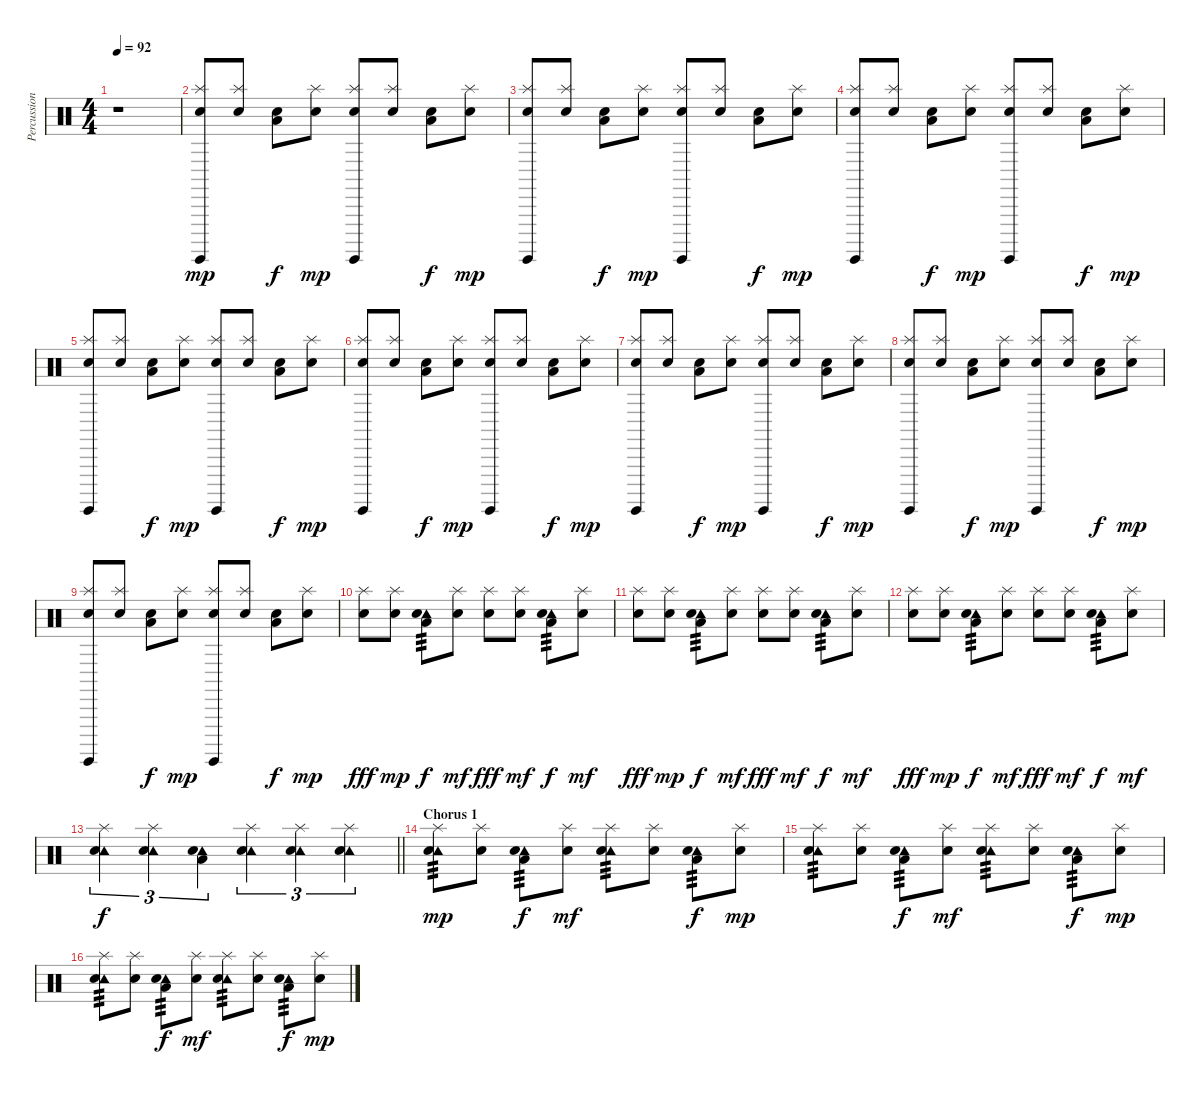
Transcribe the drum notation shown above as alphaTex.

\track ("Percussion" "Percussion") {instrument percussion}
\staff {score}
\articulation defaults
\ts (4 4)
\tempo 92
\clef neutral
\ks c
r.1{dy mp} |
("Surdo (hit)" "Splash (hit)" "Snare (hit) 2").8 ("Splash (hit)" "Snare (hit) 2").8 ("Low Floor Tom (hit)" "Snare (hit) 2").8{dy f} ("Splash (hit)" "Snare (hit) 2").8{dy mp} ("Surdo (hit)" "Splash (hit)" "Snare (hit) 2").8 ("Splash (hit)" "Snare (hit) 2").8 ("Low Floor Tom (hit)" "Snare (hit) 2").8{dy f} ("Splash (hit)" "Snare (hit) 2").8{dy mp} |
("Surdo (hit)" "Splash (hit)" "Snare (hit) 2").8 ("Splash (hit)" "Snare (hit) 2").8 ("Low Floor Tom (hit)" "Snare (hit) 2").8{dy f} ("Splash (hit)" "Snare (hit) 2").8{dy mp} ("Surdo (hit)" "Splash (hit)" "Snare (hit) 2").8 ("Splash (hit)" "Snare (hit) 2").8 ("Low Floor Tom (hit)" "Snare (hit) 2").8{dy f} ("Splash (hit)" "Snare (hit) 2").8{dy mp} |
("Surdo (hit)" "Splash (hit)" "Snare (hit) 2").8 ("Splash (hit)" "Snare (hit) 2").8 ("Low Floor Tom (hit)" "Snare (hit) 2").8{dy f} ("Splash (hit)" "Snare (hit) 2").8{dy mp} ("Surdo (hit)" "Splash (hit)" "Snare (hit) 2").8 ("Splash (hit)" "Snare (hit) 2").8 ("Low Floor Tom (hit)" "Snare (hit) 2").8{dy f} ("Splash (hit)" "Snare (hit) 2").8{dy mp} |
("Surdo (hit)" "Splash (hit)" "Snare (hit) 2").8 ("Splash (hit)" "Snare (hit) 2").8 ("Low Floor Tom (hit)" "Snare (hit) 2").8{dy f} ("Splash (hit)" "Snare (hit) 2").8{dy mp} ("Surdo (hit)" "Splash (hit)" "Snare (hit) 2").8 ("Splash (hit)" "Snare (hit) 2").8 ("Low Floor Tom (hit)" "Snare (hit) 2").8{dy f} ("Splash (hit)" "Snare (hit) 2").8{dy mp} |
("Surdo (hit)" "Splash (hit)" "Snare (hit) 2").8 ("Splash (hit)" "Snare (hit) 2").8 ("Low Floor Tom (hit)" "Snare (hit) 2").8{dy f} ("Splash (hit)" "Snare (hit) 2").8{dy mp} ("Surdo (hit)" "Splash (hit)" "Snare (hit) 2").8 ("Splash (hit)" "Snare (hit) 2").8 ("Low Floor Tom (hit)" "Snare (hit) 2").8{dy f} ("Splash (hit)" "Snare (hit) 2").8{dy mp} |
("Surdo (hit)" "Splash (hit)" "Snare (hit) 2").8 ("Splash (hit)" "Snare (hit) 2").8 ("Low Floor Tom (hit)" "Snare (hit) 2").8{dy f} ("Splash (hit)" "Snare (hit) 2").8{dy mp} ("Surdo (hit)" "Splash (hit)" "Snare (hit) 2").8 ("Splash (hit)" "Snare (hit) 2").8 ("Low Floor Tom (hit)" "Snare (hit) 2").8{dy f} ("Splash (hit)" "Snare (hit) 2").8{dy mp} |
("Surdo (hit)" "Splash (hit)" "Snare (hit) 2").8 ("Splash (hit)" "Snare (hit) 2").8 ("Low Floor Tom (hit)" "Snare (hit) 2").8{dy f} ("Splash (hit)" "Snare (hit) 2").8{dy mp} ("Surdo (hit)" "Splash (hit)" "Snare (hit) 2").8 ("Splash (hit)" "Snare (hit) 2").8 ("Low Floor Tom (hit)" "Snare (hit) 2").8{dy f} ("Splash (hit)" "Snare (hit) 2").8{dy mp} |
("Surdo (hit)" "Splash (hit)" "Snare (hit) 2").8 ("Splash (hit)" "Snare (hit) 2").8 ("Low Floor Tom (hit)" "Snare (hit) 2").8{dy f} ("Splash (hit)" "Snare (hit) 2").8{dy mp} ("Surdo (hit)" "Splash (hit)" "Snare (hit) 2").8 ("Splash (hit)" "Snare (hit) 2").8 ("Low Floor Tom (hit)" "Snare (hit) 2").8{dy f} ("Splash (hit)" "Snare (hit) 2").8{dy mp} |
("Splash (hit)" "Snare (hit) 2").8{dy fff} ("Splash (hit)" "Snare (hit) 2").8{dy mp} ("Tambourine (hit)" "Low Floor Tom (hit)" "Snare (hit) 2").8{tp 3 dy f} ("Splash (hit)" "Snare (hit) 2").8{dy mf} ("Splash (hit)" "Snare (hit) 2").8{dy fff} ("Splash (hit)" "Snare (hit) 2").8{dy mf} ("Tambourine (hit)" "Low Floor Tom (hit)" "Snare (hit) 2").8{tp 3 dy f} ("Splash (hit)" "Snare (hit) 2").8{dy mf} |
("Splash (hit)" "Snare (hit) 2").8{dy fff} ("Splash (hit)" "Snare (hit) 2").8{dy mp} ("Tambourine (hit)" "Low Floor Tom (hit)" "Snare (hit) 2").8{tp 3 dy f} ("Splash (hit)" "Snare (hit) 2").8{dy mf} ("Splash (hit)" "Snare (hit) 2").8{dy fff} ("Splash (hit)" "Snare (hit) 2").8{dy mf} ("Tambourine (hit)" "Low Floor Tom (hit)" "Snare (hit) 2").8{tp 3 dy f} ("Splash (hit)" "Snare (hit) 2").8{dy mf} |
("Splash (hit)" "Snare (hit) 2").8{dy fff} ("Splash (hit)" "Snare (hit) 2").8{dy mp} ("Tambourine (hit)" "Low Floor Tom (hit)" "Snare (hit) 2").8{tp 3 dy f} ("Splash (hit)" "Snare (hit) 2").8{dy mf} ("Splash (hit)" "Snare (hit) 2").8{dy fff} ("Splash (hit)" "Snare (hit) 2").8{dy mf} ("Tambourine (hit)" "Low Floor Tom (hit)" "Snare (hit) 2").8{tp 3 dy f} ("Splash (hit)" "Snare (hit) 2").8{dy mf} |
\barLineRight lightlight
("Tambourine (hit)" "Splash (hit)" "Snare (hit) 2").4{tu (3 2) dy f} ("Tambourine (hit)" "Splash (hit)" "Snare (hit) 2").4{tu (3 2)} ("Tambourine (hit)" "Low Floor Tom (hit)" "Snare (hit) 2").4{tu (3 2)} ("Tambourine (hit)" "Splash (hit)" "Snare (hit) 2").4{tu (3 2)} ("Tambourine (hit)" "Splash (hit)" "Snare (hit) 2").4{tu (3 2)} ("Tambourine (hit)" "Splash (hit)" "Snare (hit) 2").4{tu (3 2)} |
\section ("" "Chorus 1")
("Tambourine (hit)" "Splash (hit)" "Snare (hit) 2").8{tp 3 dy mp} ("Splash (hit)" "Snare (hit) 2").8 ("Tambourine (hit)" "Low Floor Tom (hit)" "Snare (hit) 2").8{tp 3 dy f} ("Splash (hit)" "Snare (hit) 2").8{dy mf} ("Tambourine (hit)" "Splash (hit)" "Snare (hit) 2").8{tp 3} ("Splash (hit)" "Snare (hit) 2").8 ("Tambourine (hit)" "Low Floor Tom (hit)" "Snare (hit) 2").8{tp 3 dy f} ("Splash (hit)" "Snare (hit) 2").8{dy mp} |
("Tambourine (hit)" "Splash (hit)" "Snare (hit) 2").8{tp 3} ("Splash (hit)" "Snare (hit) 2").8 ("Tambourine (hit)" "Low Floor Tom (hit)" "Snare (hit) 2").8{tp 3 dy f} ("Splash (hit)" "Snare (hit) 2").8{dy mf} ("Tambourine (hit)" "Splash (hit)" "Snare (hit) 2").8{tp 3} ("Splash (hit)" "Snare (hit) 2").8 ("Tambourine (hit)" "Low Floor Tom (hit)" "Snare (hit) 2").8{tp 3 dy f} ("Splash (hit)" "Snare (hit) 2").8{dy mp} |
("Tambourine (hit)" "Splash (hit)" "Snare (hit) 2").8{tp 3} ("Splash (hit)" "Snare (hit) 2").8 ("Tambourine (hit)" "Low Floor Tom (hit)" "Snare (hit) 2").8{tp 3 dy f} ("Splash (hit)" "Snare (hit) 2").8{dy mf} ("Tambourine (hit)" "Splash (hit)" "Snare (hit) 2").8{tp 3} ("Splash (hit)" "Snare (hit) 2").8 ("Tambourine (hit)" "Low Floor Tom (hit)" "Snare (hit) 2").8{tp 3 dy f} ("Splash (hit)" "Snare (hit) 2").8{dy mp}
